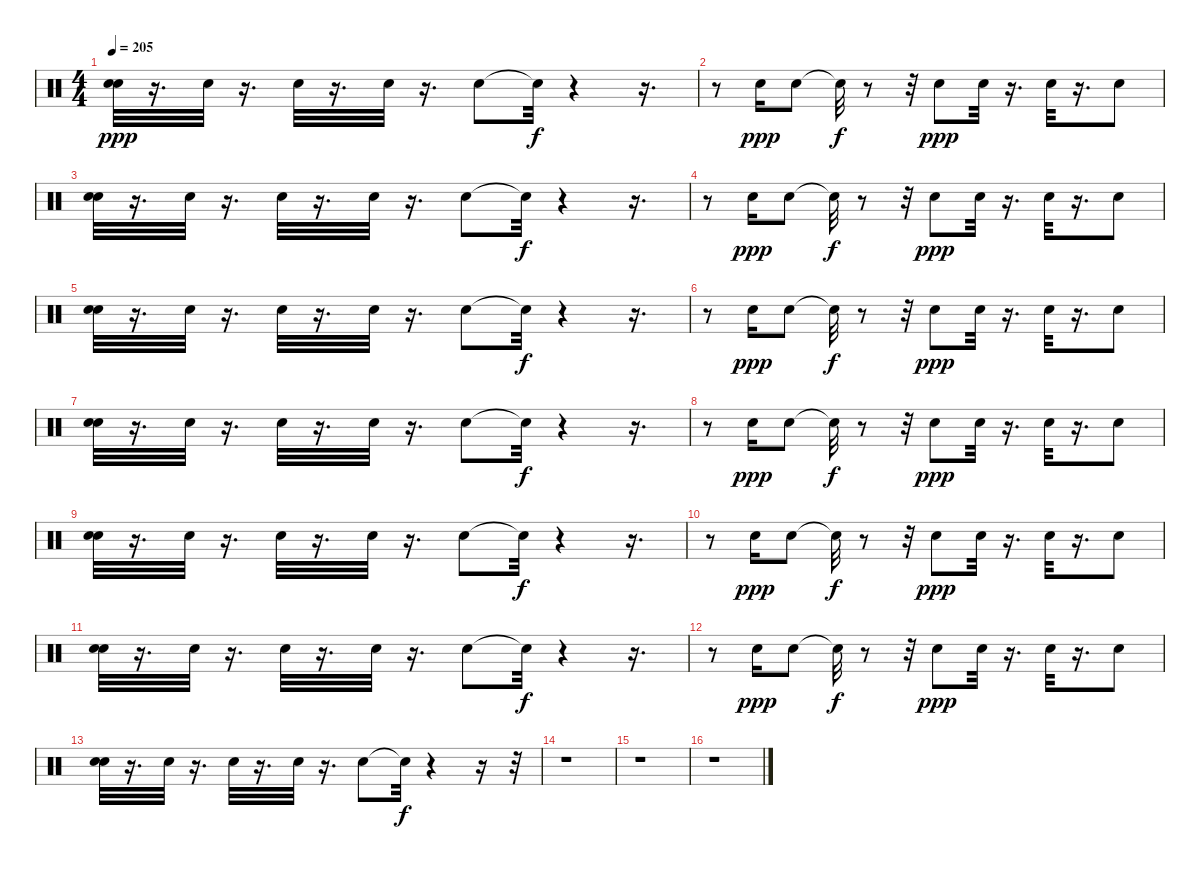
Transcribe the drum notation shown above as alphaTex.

\track "" {instrument percussion}
\staff {score}
\articulation defaults
\ts (4 4)
\tempo 205
\clef neutral
\ks c
("Electric Snare (hit)" "Electric Snare (hit)").32{dy ppp} r.16{d} "Electric Snare (hit)".32 r.16{d} "Electric Snare (hit)".32 r.16{d} "Electric Snare (hit)".32 r.16{d} "Electric Snare (hit)".8 "Snare (hit)"{t}.32{dy f} r.4 r.16{d} |
r.8 "Electric Snare (hit)".16{dy ppp} "Electric Snare (hit)".8 "Snare (hit)"{t}.32{dy f} r.8 r.32 "Electric Snare (hit)".8{dy ppp} "Electric Snare (hit)".32 r.16{d} "Electric Snare (hit)".32 r.16{d} "Electric Snare (hit)".8 |
("Electric Snare (hit)" "Electric Snare (hit)").32 r.16{d} "Electric Snare (hit)".32 r.16{d} "Electric Snare (hit)".32 r.16{d} "Electric Snare (hit)".32 r.16{d} "Electric Snare (hit)".8 "Snare (hit)"{t}.32{dy f} r.4 r.16{d} |
r.8 "Electric Snare (hit)".16{dy ppp} "Electric Snare (hit)".8 "Snare (hit)"{t}.32{dy f} r.8 r.32 "Electric Snare (hit)".8{dy ppp} "Electric Snare (hit)".32 r.16{d} "Electric Snare (hit)".32 r.16{d} "Electric Snare (hit)".8 |
("Electric Snare (hit)" "Electric Snare (hit)").32 r.16{d} "Electric Snare (hit)".32 r.16{d} "Electric Snare (hit)".32 r.16{d} "Electric Snare (hit)".32 r.16{d} "Electric Snare (hit)".8 "Snare (hit)"{t}.32{dy f} r.4 r.16{d} |
r.8 "Electric Snare (hit)".16{dy ppp} "Electric Snare (hit)".8 "Snare (hit)"{t}.32{dy f} r.8 r.32 "Electric Snare (hit)".8{dy ppp} "Electric Snare (hit)".32 r.16{d} "Electric Snare (hit)".32 r.16{d} "Electric Snare (hit)".8 |
("Electric Snare (hit)" "Electric Snare (hit)").32 r.16{d} "Electric Snare (hit)".32 r.16{d} "Electric Snare (hit)".32 r.16{d} "Electric Snare (hit)".32 r.16{d} "Electric Snare (hit)".8 "Snare (hit)"{t}.32{dy f} r.4 r.16{d} |
r.8 "Electric Snare (hit)".16{dy ppp} "Electric Snare (hit)".8 "Snare (hit)"{t}.32{dy f} r.8 r.32 "Electric Snare (hit)".8{dy ppp} "Electric Snare (hit)".32 r.16{d} "Electric Snare (hit)".32 r.16{d} "Electric Snare (hit)".8 |
("Electric Snare (hit)" "Electric Snare (hit)").32 r.16{d} "Electric Snare (hit)".32 r.16{d} "Electric Snare (hit)".32 r.16{d} "Electric Snare (hit)".32 r.16{d} "Electric Snare (hit)".8 "Snare (hit)"{t}.32{dy f} r.4 r.16{d} |
r.8 "Electric Snare (hit)".16{dy ppp} "Electric Snare (hit)".8 "Snare (hit)"{t}.32{dy f} r.8 r.32 "Electric Snare (hit)".8{dy ppp} "Electric Snare (hit)".32 r.16{d} "Electric Snare (hit)".32 r.16{d} "Electric Snare (hit)".8 |
("Electric Snare (hit)" "Electric Snare (hit)").32 r.16{d} "Electric Snare (hit)".32 r.16{d} "Electric Snare (hit)".32 r.16{d} "Electric Snare (hit)".32 r.16{d} "Electric Snare (hit)".8 "Snare (hit)"{t}.32{dy f} r.4 r.16{d} |
r.8 "Electric Snare (hit)".16{dy ppp} "Electric Snare (hit)".8 "Snare (hit)"{t}.32{dy f} r.8 r.32 "Electric Snare (hit)".8{dy ppp} "Electric Snare (hit)".32 r.16{d} "Electric Snare (hit)".32 r.16{d} "Electric Snare (hit)".8 |
("Electric Snare (hit)" "Electric Snare (hit)").32 r.16{d} "Electric Snare (hit)".32 r.16{d} "Electric Snare (hit)".32 r.16{d} "Electric Snare (hit)".32 r.16{d} "Electric Snare (hit)".8 "Snare (hit)"{t}.32{dy f} r.4 r.16 r.32 |
r.1 |
r.1 |
r.1
